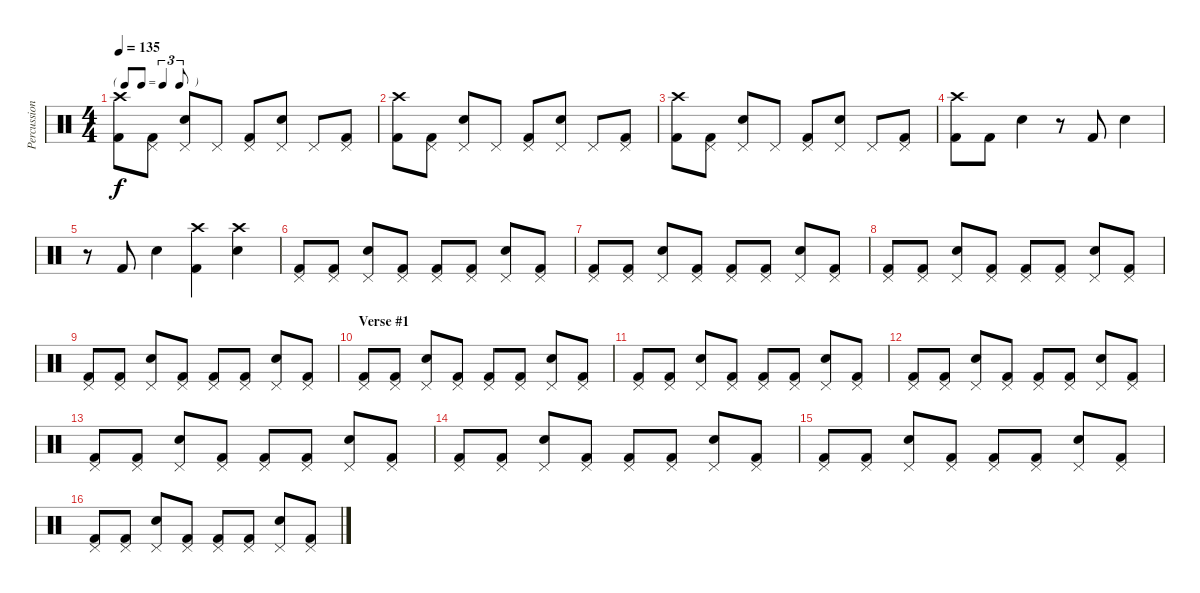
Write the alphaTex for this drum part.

\track ("Percussion" "Percussion") {instrument percussion}
\staff {score}
\articulation defaults
\ts (4 4)
\tf triplet8th
\tempo 135
\clef neutral
\ks c
("Crash high (hit)" "Kick (hit) 2").8{dy f} ("Pedal Hi-Hat (hit)" "Kick (hit) 2").8 ("Pedal Hi-Hat (hit)" "Electric Snare (hit)").8 "Pedal Hi-Hat (hit)".8 ("Pedal Hi-Hat (hit)" "Kick (hit) 2").8 ("Pedal Hi-Hat (hit)" "Electric Snare (hit)").8 "Pedal Hi-Hat (hit)".8 ("Pedal Hi-Hat (hit)" "Kick (hit) 2").8 |
("Crash high (hit)" "Kick (hit) 2").8 ("Pedal Hi-Hat (hit)" "Kick (hit) 2").8 ("Pedal Hi-Hat (hit)" "Electric Snare (hit)").8 "Pedal Hi-Hat (hit)".8 ("Pedal Hi-Hat (hit)" "Kick (hit) 2").8 ("Pedal Hi-Hat (hit)" "Electric Snare (hit)").8 "Pedal Hi-Hat (hit)".8 ("Pedal Hi-Hat (hit)" "Kick (hit) 2").8 |
("Crash high (hit)" "Kick (hit) 2").8 ("Pedal Hi-Hat (hit)" "Kick (hit) 2").8 ("Pedal Hi-Hat (hit)" "Electric Snare (hit)").8 "Pedal Hi-Hat (hit)".8 ("Pedal Hi-Hat (hit)" "Kick (hit) 2").8 ("Pedal Hi-Hat (hit)" "Electric Snare (hit)").8 "Pedal Hi-Hat (hit)".8 ("Pedal Hi-Hat (hit)" "Kick (hit) 2").8 |
("Crash high (hit)" "Kick (hit) 2").8 "Kick (hit) 2".8 "Electric Snare (hit)".4 r.8 "Kick (hit) 2".8 "Electric Snare (hit)".4 |
r.8 "Kick (hit) 2".8 "Electric Snare (hit)".4 ("Crash high (hit)" "Kick (hit) 2").4 ("Crash high (hit)" "Electric Snare (hit)").4 |
("Pedal Hi-Hat (hit)" "Kick (hit) 2").8 ("Pedal Hi-Hat (hit)" "Kick (hit) 2").8 ("Pedal Hi-Hat (hit)" "Electric Snare (hit)").8 ("Pedal Hi-Hat (hit)" "Kick (hit) 2").8 ("Pedal Hi-Hat (hit)" "Kick (hit) 2").8 ("Pedal Hi-Hat (hit)" "Kick (hit) 2").8 ("Pedal Hi-Hat (hit)" "Electric Snare (hit)").8 ("Pedal Hi-Hat (hit)" "Kick (hit) 2").8 |
("Pedal Hi-Hat (hit)" "Kick (hit) 2").8 ("Pedal Hi-Hat (hit)" "Kick (hit) 2").8 ("Pedal Hi-Hat (hit)" "Electric Snare (hit)").8 ("Pedal Hi-Hat (hit)" "Kick (hit) 2").8 ("Pedal Hi-Hat (hit)" "Kick (hit) 2").8 ("Pedal Hi-Hat (hit)" "Kick (hit) 2").8 ("Pedal Hi-Hat (hit)" "Electric Snare (hit)").8 ("Pedal Hi-Hat (hit)" "Kick (hit) 2").8 |
("Pedal Hi-Hat (hit)" "Kick (hit) 2").8 ("Pedal Hi-Hat (hit)" "Kick (hit) 2").8 ("Pedal Hi-Hat (hit)" "Electric Snare (hit)").8 ("Pedal Hi-Hat (hit)" "Kick (hit) 2").8 ("Pedal Hi-Hat (hit)" "Kick (hit) 2").8 ("Pedal Hi-Hat (hit)" "Kick (hit) 2").8 ("Pedal Hi-Hat (hit)" "Electric Snare (hit)").8 ("Pedal Hi-Hat (hit)" "Kick (hit) 2").8 |
("Pedal Hi-Hat (hit)" "Kick (hit) 2").8 ("Pedal Hi-Hat (hit)" "Kick (hit) 2").8 ("Pedal Hi-Hat (hit)" "Electric Snare (hit)").8 ("Pedal Hi-Hat (hit)" "Kick (hit) 2").8 ("Pedal Hi-Hat (hit)" "Kick (hit) 2").8 ("Pedal Hi-Hat (hit)" "Kick (hit) 2").8 ("Pedal Hi-Hat (hit)" "Electric Snare (hit)").8 ("Pedal Hi-Hat (hit)" "Kick (hit) 2").8 |
\section ("" "Verse #1")
("Pedal Hi-Hat (hit)" "Kick (hit) 2").8 ("Pedal Hi-Hat (hit)" "Kick (hit) 2").8 ("Pedal Hi-Hat (hit)" "Electric Snare (hit)").8 ("Pedal Hi-Hat (hit)" "Kick (hit) 2").8 ("Pedal Hi-Hat (hit)" "Kick (hit) 2").8 ("Pedal Hi-Hat (hit)" "Kick (hit) 2").8 ("Pedal Hi-Hat (hit)" "Electric Snare (hit)").8 ("Pedal Hi-Hat (hit)" "Kick (hit) 2").8 |
("Pedal Hi-Hat (hit)" "Kick (hit) 2").8 ("Pedal Hi-Hat (hit)" "Kick (hit) 2").8 ("Pedal Hi-Hat (hit)" "Electric Snare (hit)").8 ("Pedal Hi-Hat (hit)" "Kick (hit) 2").8 ("Pedal Hi-Hat (hit)" "Kick (hit) 2").8 ("Pedal Hi-Hat (hit)" "Kick (hit) 2").8 ("Pedal Hi-Hat (hit)" "Electric Snare (hit)").8 ("Pedal Hi-Hat (hit)" "Kick (hit) 2").8 |
("Pedal Hi-Hat (hit)" "Kick (hit) 2").8 ("Pedal Hi-Hat (hit)" "Kick (hit) 2").8 ("Pedal Hi-Hat (hit)" "Electric Snare (hit)").8 ("Pedal Hi-Hat (hit)" "Kick (hit) 2").8 ("Pedal Hi-Hat (hit)" "Kick (hit) 2").8 ("Pedal Hi-Hat (hit)" "Kick (hit) 2").8 ("Pedal Hi-Hat (hit)" "Electric Snare (hit)").8 ("Pedal Hi-Hat (hit)" "Kick (hit) 2").8 |
("Pedal Hi-Hat (hit)" "Kick (hit) 2").8 ("Pedal Hi-Hat (hit)" "Kick (hit) 2").8 ("Pedal Hi-Hat (hit)" "Electric Snare (hit)").8 ("Pedal Hi-Hat (hit)" "Kick (hit) 2").8 ("Pedal Hi-Hat (hit)" "Kick (hit) 2").8 ("Pedal Hi-Hat (hit)" "Kick (hit) 2").8 ("Pedal Hi-Hat (hit)" "Electric Snare (hit)").8 ("Pedal Hi-Hat (hit)" "Kick (hit) 2").8 |
("Pedal Hi-Hat (hit)" "Kick (hit) 2").8 ("Pedal Hi-Hat (hit)" "Kick (hit) 2").8 ("Pedal Hi-Hat (hit)" "Electric Snare (hit)").8 ("Pedal Hi-Hat (hit)" "Kick (hit) 2").8 ("Pedal Hi-Hat (hit)" "Kick (hit) 2").8 ("Pedal Hi-Hat (hit)" "Kick (hit) 2").8 ("Pedal Hi-Hat (hit)" "Electric Snare (hit)").8 ("Pedal Hi-Hat (hit)" "Kick (hit) 2").8 |
("Pedal Hi-Hat (hit)" "Kick (hit) 2").8 ("Pedal Hi-Hat (hit)" "Kick (hit) 2").8 ("Pedal Hi-Hat (hit)" "Electric Snare (hit)").8 ("Pedal Hi-Hat (hit)" "Kick (hit) 2").8 ("Pedal Hi-Hat (hit)" "Kick (hit) 2").8 ("Pedal Hi-Hat (hit)" "Kick (hit) 2").8 ("Pedal Hi-Hat (hit)" "Electric Snare (hit)").8 ("Pedal Hi-Hat (hit)" "Kick (hit) 2").8 |
("Pedal Hi-Hat (hit)" "Kick (hit) 2").8 ("Pedal Hi-Hat (hit)" "Kick (hit) 2").8 ("Pedal Hi-Hat (hit)" "Electric Snare (hit)").8 ("Pedal Hi-Hat (hit)" "Kick (hit) 2").8 ("Pedal Hi-Hat (hit)" "Kick (hit) 2").8 ("Pedal Hi-Hat (hit)" "Kick (hit) 2").8 ("Pedal Hi-Hat (hit)" "Electric Snare (hit)").8 ("Pedal Hi-Hat (hit)" "Kick (hit) 2").8
